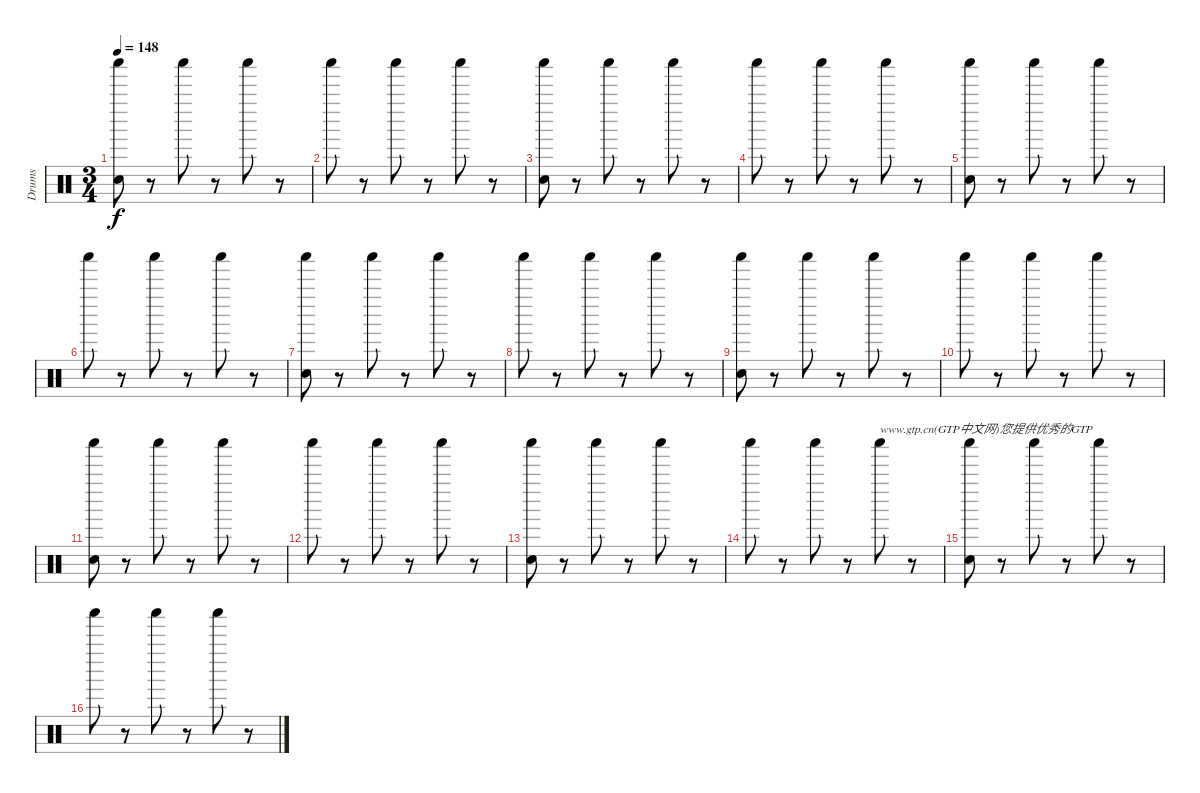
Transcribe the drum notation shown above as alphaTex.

\track ("Drums" "Drums") {instrument percussion}
\staff {score}
\articulation defaults
\ts (3 4)
\tempo 148
\clef neutral
\ks c
("Shaker (hit)" "Hand Clap (hit)").8{dy f} r.8 "Shaker (hit)".8 r.8 "Shaker (hit)".8 r.8 |
"Shaker (hit)".8 r.8 "Shaker (hit)".8 r.8 "Shaker (hit)".8 r.8 |
("Shaker (hit)" "Hand Clap (hit)").8 r.8 "Shaker (hit)".8 r.8 "Shaker (hit)".8 r.8 |
"Shaker (hit)".8 r.8 "Shaker (hit)".8 r.8 "Shaker (hit)".8 r.8 |
("Shaker (hit)" "Hand Clap (hit)").8 r.8 "Shaker (hit)".8 r.8 "Shaker (hit)".8 r.8 |
"Shaker (hit)".8 r.8 "Shaker (hit)".8 r.8 "Shaker (hit)".8 r.8 |
("Shaker (hit)" "Hand Clap (hit)").8 r.8 "Shaker (hit)".8 r.8 "Shaker (hit)".8 r.8 |
"Shaker (hit)".8 r.8 "Shaker (hit)".8 r.8 "Shaker (hit)".8 r.8 |
("Shaker (hit)" "Hand Clap (hit)").8 r.8 "Shaker (hit)".8 r.8 "Shaker (hit)".8 r.8 |
"Shaker (hit)".8 r.8 "Shaker (hit)".8 r.8 "Shaker (hit)".8 r.8 |
("Shaker (hit)" "Hand Clap (hit)").8 r.8 "Shaker (hit)".8 r.8 "Shaker (hit)".8 r.8 |
"Shaker (hit)".8 r.8 "Shaker (hit)".8 r.8 "Shaker (hit)".8 r.8 |
("Shaker (hit)" "Hand Clap (hit)").8 r.8 "Shaker (hit)".8 r.8 "Shaker (hit)".8 r.8 |
"Shaker (hit)".8 r.8 "Shaker (hit)".8 r.8 "Shaker (hit)".8{txt "www.gtp.cn(GTP中文网)您提供优秀的GTP"} r.8 |
("Shaker (hit)" "Hand Clap (hit)").8 r.8 "Shaker (hit)".8 r.8 "Shaker (hit)".8 r.8 |
"Shaker (hit)".8 r.8 "Shaker (hit)".8 r.8 "Shaker (hit)".8 r.8
